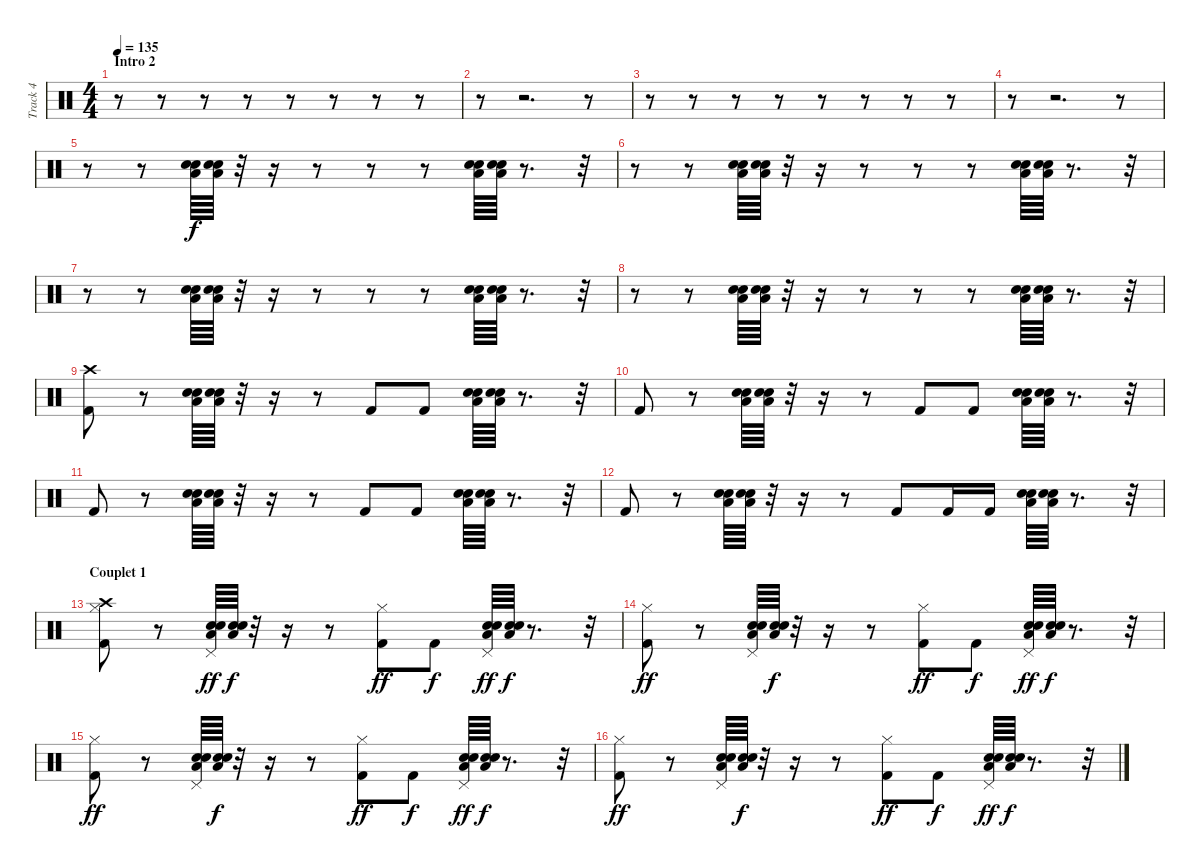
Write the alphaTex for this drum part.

\track ("Track 4" "Track 4") {instrument percussion}
\staff {score}
\articulation defaults
\ts (4 4)
\section ("" "Intro 2")
\tempo 135
\clef neutral
\ks c
r.8{dy f} r.8 r.8 r.8 r.8 r.8 r.8 r.8 |
r.8 r.2{d} r.8 |
r.8 r.8 r.8 r.8 r.8 r.8 r.8 r.8 |
r.8 r.2{d} r.8 |
r.8 r.8 ("Electric Snare (hit)" "Low Tom (hit)" "Snare (hit) 2").64 ("Electric Snare (hit)" "Low Tom (hit)" "Snare (hit) 2").64 r.32 r.16 r.8 r.8 r.8 ("Electric Snare (hit)" "Low Tom (hit)" "Snare (hit) 2").64 ("Electric Snare (hit)" "Low Tom (hit)" "Snare (hit) 2").64 r.8{d} r.32 |
r.8 r.8 ("Electric Snare (hit)" "Low Tom (hit)" "Snare (hit) 2").64 ("Electric Snare (hit)" "Low Tom (hit)" "Snare (hit) 2").64 r.32 r.16 r.8 r.8 r.8 ("Electric Snare (hit)" "Low Tom (hit)" "Snare (hit) 2").64 ("Electric Snare (hit)" "Low Tom (hit)" "Snare (hit) 2").64 r.8{d} r.32 |
r.8 r.8 ("Electric Snare (hit)" "Low Tom (hit)" "Snare (hit) 2").64 ("Electric Snare (hit)" "Low Tom (hit)" "Snare (hit) 2").64 r.32 r.16 r.8 r.8 r.8 ("Electric Snare (hit)" "Low Tom (hit)" "Snare (hit) 2").64 ("Electric Snare (hit)" "Low Tom (hit)" "Snare (hit) 2").64 r.8{d} r.32 |
r.8 r.8 ("Electric Snare (hit)" "Low Tom (hit)" "Snare (hit) 2").64 ("Electric Snare (hit)" "Low Tom (hit)" "Snare (hit) 2").64 r.32 r.16 r.8 r.8 r.8 ("Electric Snare (hit)" "Low Tom (hit)" "Snare (hit) 2").64 ("Electric Snare (hit)" "Low Tom (hit)" "Snare (hit) 2").64 r.8{d} r.32 |
("Kick (hit) 2" "Crash high (hit)").8 r.8 ("Electric Snare (hit)" "Low Tom (hit)" "Snare (hit) 2").64 ("Electric Snare (hit)" "Low Tom (hit)" "Snare (hit) 2").64 r.32 r.16 r.8 "Kick (hit) 2".8 "Kick (hit) 2".8 ("Electric Snare (hit)" "Low Tom (hit)" "Snare (hit) 2").64 ("Electric Snare (hit)" "Low Tom (hit)" "Snare (hit) 2").64 r.8{d} r.32 |
"Kick (hit) 2".8 r.8 ("Electric Snare (hit)" "Low Tom (hit)" "Snare (hit) 2").64 ("Electric Snare (hit)" "Low Tom (hit)" "Snare (hit) 2").64 r.32 r.16 r.8 "Kick (hit) 2".8 "Kick (hit) 2".8 ("Electric Snare (hit)" "Low Tom (hit)" "Snare (hit) 2").64 ("Electric Snare (hit)" "Low Tom (hit)" "Snare (hit) 2").64 r.8{d} r.32 |
"Kick (hit) 2".8 r.8 ("Electric Snare (hit)" "Low Tom (hit)" "Snare (hit) 2").64 ("Electric Snare (hit)" "Low Tom (hit)" "Snare (hit) 2").64 r.32 r.16 r.8 "Kick (hit) 2".8 "Kick (hit) 2".8 ("Electric Snare (hit)" "Low Tom (hit)" "Snare (hit) 2").64 ("Electric Snare (hit)" "Low Tom (hit)" "Snare (hit) 2").64 r.8{d} r.32 |
"Kick (hit) 2".8 r.8 ("Electric Snare (hit)" "Low Tom (hit)" "Snare (hit) 2").64 ("Electric Snare (hit)" "Low Tom (hit)" "Snare (hit) 2").64 r.32 r.16 r.8 "Kick (hit) 2".8 "Kick (hit) 2".16 "Kick (hit) 2".16 ("Electric Snare (hit)" "Low Tom (hit)" "Snare (hit) 2").64 ("Electric Snare (hit)" "Low Tom (hit)" "Snare (hit) 2").64 r.8{d} r.32 |
\section ("" "Couplet 1")
("Kick (hit) 2" "Hi-Hat (closed)" "Crash high (hit)").8 r.8 ("Electric Snare (hit)" "Low Tom (hit)" "Snare (hit) 2" "Pedal Hi-Hat (hit)").64{dy ff} ("Electric Snare (hit)" "Low Tom (hit)" "Snare (hit) 2").64{dy f} r.32 r.16 r.8 ("Kick (hit) 2" "Hi-Hat (closed)").8{dy ff} "Kick (hit) 2".8{dy f} ("Electric Snare (hit)" "Low Tom (hit)" "Snare (hit) 2" "Pedal Hi-Hat (hit)").64{dy ff} ("Electric Snare (hit)" "Low Tom (hit)" "Snare (hit) 2").64{dy f} r.8{d} r.32 |
("Kick (hit) 2" "Hi-Hat (closed)").8{dy ff} r.8 ("Electric Snare (hit)" "Low Tom (hit)" "Snare (hit) 2" "Pedal Hi-Hat (hit)").64 ("Electric Snare (hit)" "Low Tom (hit)" "Snare (hit) 2").64{dy f} r.32 r.16 r.8 ("Kick (hit) 2" "Hi-Hat (closed)").8{dy ff} "Kick (hit) 2".8{dy f} ("Electric Snare (hit)" "Low Tom (hit)" "Snare (hit) 2" "Pedal Hi-Hat (hit)").64{dy ff} ("Electric Snare (hit)" "Low Tom (hit)" "Snare (hit) 2").64{dy f} r.8{d} r.32 |
("Kick (hit) 2" "Hi-Hat (closed)").8{dy ff} r.8 ("Electric Snare (hit)" "Low Tom (hit)" "Snare (hit) 2" "Pedal Hi-Hat (hit)").64 ("Electric Snare (hit)" "Low Tom (hit)" "Snare (hit) 2").64{dy f} r.32 r.16 r.8 ("Kick (hit) 2" "Hi-Hat (closed)").8{dy ff} "Kick (hit) 2".8{dy f} ("Electric Snare (hit)" "Low Tom (hit)" "Snare (hit) 2" "Pedal Hi-Hat (hit)").64{dy ff} ("Electric Snare (hit)" "Low Tom (hit)" "Snare (hit) 2").64{dy f} r.8{d} r.32 |
("Kick (hit) 2" "Hi-Hat (closed)").8{dy ff} r.8 ("Electric Snare (hit)" "Low Tom (hit)" "Snare (hit) 2" "Pedal Hi-Hat (hit)").64 ("Electric Snare (hit)" "Low Tom (hit)" "Snare (hit) 2").64{dy f} r.32 r.16 r.8 ("Kick (hit) 2" "Hi-Hat (closed)").8{dy ff} "Kick (hit) 2".8{dy f} ("Electric Snare (hit)" "Low Tom (hit)" "Snare (hit) 2" "Pedal Hi-Hat (hit)").64{dy ff} ("Electric Snare (hit)" "Low Tom (hit)" "Snare (hit) 2").64{dy f} r.8{d} r.32
